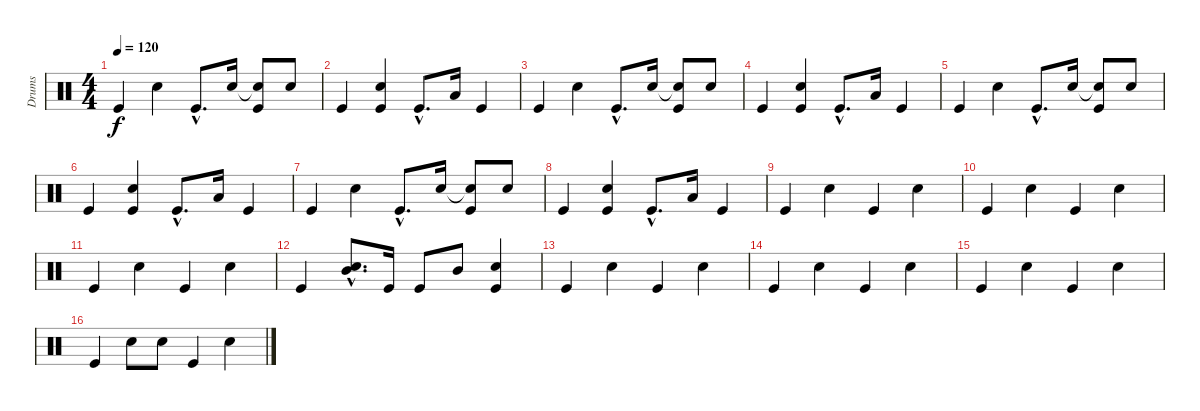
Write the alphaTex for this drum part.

\track ("Drums" "Drums") {instrument percussion}
\staff {score}
\articulation defaults
\ts (4 4)
\tempo 120
\clef neutral
\ks c "Kick (hit)".4{dy f} "Snare (hit) 2".4 "Kick (hit)"{hac}.8{d} "Snare (hit) 2".16
("Snare (hit) 2"{t} "Kick (hit)").8 "Snare (hit) 2".8 |
"Kick (hit)".4 ("Kick (hit)" "Snare (hit) 2").4 "Kick (hit)"{hac}.8{d} "Low Tom (hit)".16 "Kick (hit)".4 |
"Kick (hit)".4 "Snare (hit) 2".4 "Kick (hit)"{hac}.8{d} "Snare (hit) 2".16 ("Snare (hit) 2"{t} "Kick (hit)").8 "Snare (hit) 2".8 |
"Kick (hit)".4 ("Kick (hit)" "Snare (hit) 2").4 "Kick (hit)"{hac}.8{d} "Low Tom (hit)".16 "Kick (hit)".4 |
"Kick (hit)".4 "Snare (hit) 2".4 "Kick (hit)"{hac}.8{d} "Snare (hit) 2".16 ("Snare (hit) 2"{t} "Kick (hit)").8 "Snare (hit) 2".8 |
"Kick (hit)".4 ("Kick (hit)" "Snare (hit) 2").4 "Kick (hit)"{hac}.8{d} "Low Tom (hit)".16 "Kick (hit)".4 |
"Kick (hit)".4 "Snare (hit) 2".4 "Kick (hit)"{hac}.8{d} "Snare (hit) 2".16 ("Snare (hit) 2"{t} "Kick (hit)").8 "Snare (hit) 2".8 |
"Kick (hit)".4 ("Kick (hit)" "Snare (hit) 2").4 "Kick (hit)"{hac}.8{d} "Low Tom (hit)".16 "Kick (hit)".4 |
"Kick (hit)".4 "Snare (hit) 2".4 "Kick (hit)".4 "Snare (hit) 2".4 |
"Kick (hit)".4 "Snare (hit) 2".4 "Kick (hit)".4 "Snare (hit) 2".4 |
"Kick (hit)".4 "Snare (hit) 2".4 "Kick (hit)".4 "Snare (hit) 2".4 |
"Kick (hit)".4 ("Snare (hit) 2"{hac} "Mid Tom (hit)"{hac}).8{d} "Kick (hit)".16 "Kick (hit)".8 "Mid Tom (hit)".8 ("Kick (hit)" "Snare (hit) 2").4 |
"Kick (hit)".4 "Snare (hit) 2".4 "Kick (hit)".4 "Snare (hit) 2".4 |
"Kick (hit)".4 "Snare (hit) 2".4 "Kick (hit)".4 "Snare (hit) 2".4 |
"Kick (hit)".4 "Snare (hit) 2".4 "Kick (hit)".4 "Snare (hit) 2".4 |
"Kick (hit)".4 "Snare (hit) 2".8 "Snare (hit) 2".8 "Kick (hit)".4 "Snare (hit) 2".4
